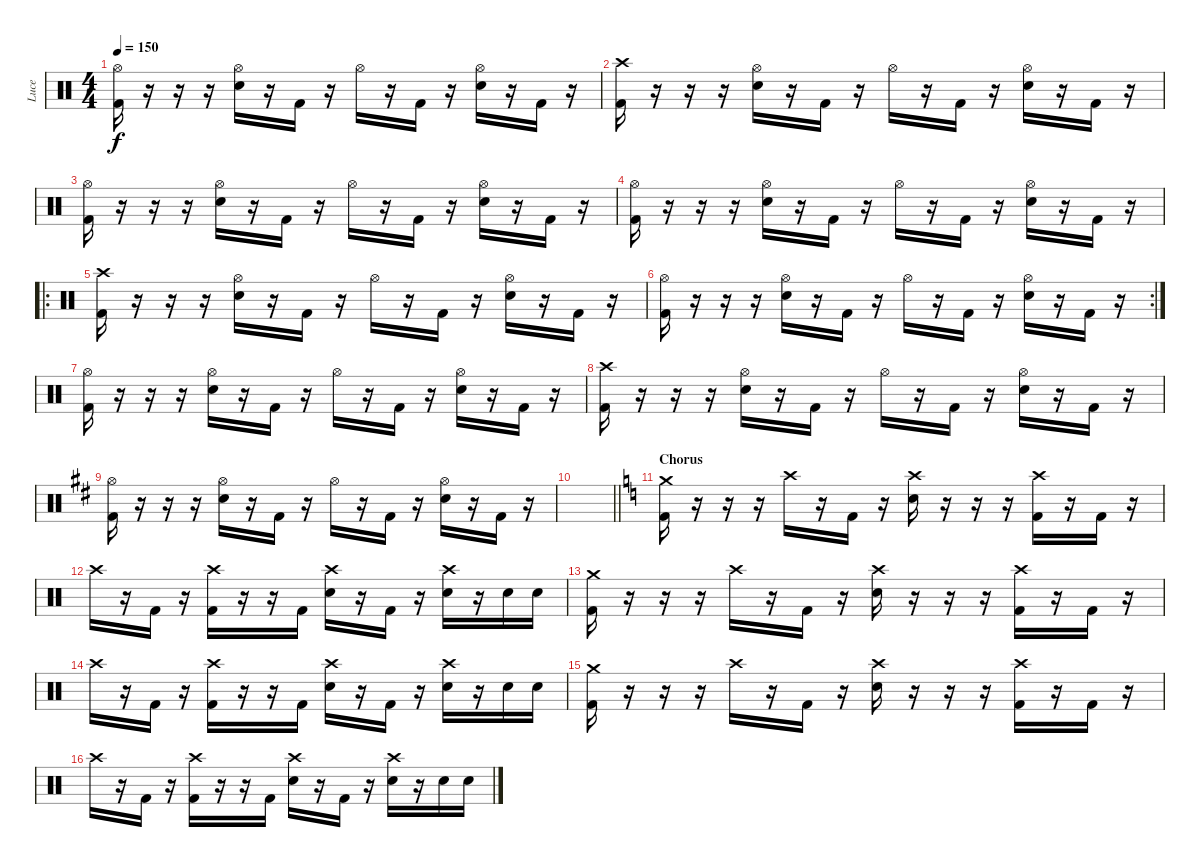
\track ("Luce" "Luce") {instrument percussion}
\staff {score}
\articulation defaults
\ts (4 4)
\tempo 150
\clef neutral
\ks c
("Hi-Hat (open)" "Kick (hit) 2").16{dy f} r.16 r.16 r.16 ("Hi-Hat (open)" "Electric Snare (hit)").16 r.16 "Kick (hit) 2".16 r.16 "Hi-Hat (open)".16 r.16 "Kick (hit) 2".16 r.16 ("Hi-Hat (open)" "Electric Snare (hit)").16 r.16 "Kick (hit) 2".16 r.16 |
("Crash high (hit)" "Kick (hit) 2").16 r.16 r.16 r.16 ("Hi-Hat (open)" "Electric Snare (hit)").16 r.16 "Kick (hit) 2".16 r.16 "Hi-Hat (open)".16 r.16 "Kick (hit) 2".16 r.16 ("Hi-Hat (open)" "Electric Snare (hit)").16 r.16 "Kick (hit) 2".16 r.16 |
("Hi-Hat (open)" "Kick (hit) 2").16 r.16 r.16 r.16 ("Hi-Hat (open)" "Electric Snare (hit)").16 r.16 "Kick (hit) 2".16 r.16 "Hi-Hat (open)".16 r.16 "Kick (hit) 2".16 r.16 ("Hi-Hat (open)" "Electric Snare (hit)").16 r.16 "Kick (hit) 2".16 r.16 |
("Hi-Hat (open)" "Kick (hit) 2").16 r.16 r.16 r.16 ("Hi-Hat (open)" "Electric Snare (hit)").16 r.16 "Kick (hit) 2".16 r.16 "Hi-Hat (open)".16 r.16 "Kick (hit) 2".16 r.16 ("Hi-Hat (open)" "Electric Snare (hit)").16 r.16 "Kick (hit) 2".16 r.16 |
\ro
("Crash high (hit)" "Kick (hit) 2").16 r.16 r.16 r.16 ("Hi-Hat (open)" "Electric Snare (hit)").16 r.16 "Kick (hit) 2".16 r.16 "Hi-Hat (open)".16 r.16 "Kick (hit) 2".16 r.16 ("Hi-Hat (open)" "Electric Snare (hit)").16 r.16 "Kick (hit) 2".16 r.16 |
\rc 2
("Hi-Hat (open)" "Kick (hit) 2").16 r.16 r.16 r.16 ("Hi-Hat (open)" "Electric Snare (hit)").16 r.16 "Kick (hit) 2".16 r.16 "Hi-Hat (open)".16 r.16 "Kick (hit) 2".16 r.16 ("Hi-Hat (open)" "Electric Snare (hit)").16 r.16 "Kick (hit) 2".16 r.16 |
("Hi-Hat (open)" "Kick (hit) 2").16 r.16 r.16 r.16 ("Hi-Hat (open)" "Electric Snare (hit)").16 r.16 "Kick (hit) 2".16 r.16 "Hi-Hat (open)".16 r.16 "Kick (hit) 2".16 r.16 ("Hi-Hat (open)" "Electric Snare (hit)").16 r.16 "Kick (hit) 2".16 r.16 |
("Crash high (hit)" "Kick (hit) 2").16 r.16 r.16 r.16 ("Hi-Hat (open)" "Electric Snare (hit)").16 r.16 "Kick (hit) 2".16 r.16 "Hi-Hat (open)".16 r.16 "Kick (hit) 2".16 r.16 ("Hi-Hat (open)" "Electric Snare (hit)").16 r.16 "Kick (hit) 2".16 r.16 |
\ks d
("Hi-Hat (open)" "Kick (hit) 2").16 r.16 r.16 r.16 ("Hi-Hat (open)" "Electric Snare (hit)").16 r.16 "Kick (hit) 2".16 r.16 "Hi-Hat (open)".16 r.16 "Kick (hit) 2".16 r.16 ("Hi-Hat (open)" "Electric Snare (hit)").16 r.16 "Kick (hit) 2".16 r.16 |
\barLineRight lightlight
|
\section ("" "Chorus")
\ks c
("Crash medium (hit)" "Kick (hit) 2").16 r.16 r.16 r.16 "Crash high (hit)".16 r.16 "Kick (hit) 2".16 r.16 ("Crash high (hit)" "Electric Snare (hit)").16 r.16 r.16 r.16 ("Crash high (hit)" "Kick (hit) 2").16 r.16 "Kick (hit) 2".16 r.16 |
"Crash high (hit)".16 r.16 "Kick (hit) 2".16 r.16 ("Crash high (hit)" "Kick (hit) 2").16 r.16 r.16 "Kick (hit) 2".16 ("Crash high (hit)" "Electric Snare (hit)").16 r.16 "Kick (hit) 2".16 r.16 ("Crash high (hit)" "Electric Snare (hit)").16 r.16 "Electric Snare (hit)".16 "Electric Snare (hit)".16 |
("Crash medium (hit)" "Kick (hit) 2").16 r.16 r.16 r.16 "Crash high (hit)".16 r.16 "Kick (hit) 2".16 r.16 ("Crash high (hit)" "Electric Snare (hit)").16 r.16 r.16 r.16 ("Crash high (hit)" "Kick (hit) 2").16 r.16 "Kick (hit) 2".16 r.16 |
"Crash high (hit)".16 r.16 "Kick (hit) 2".16 r.16 ("Crash high (hit)" "Kick (hit) 2").16 r.16 r.16 "Kick (hit) 2".16 ("Crash high (hit)" "Electric Snare (hit)").16 r.16 "Kick (hit) 2".16 r.16 ("Crash high (hit)" "Electric Snare (hit)").16 r.16 "Electric Snare (hit)".16 "Electric Snare (hit)".16 |
("Crash medium (hit)" "Kick (hit) 2").16 r.16 r.16 r.16 "Crash high (hit)".16 r.16 "Kick (hit) 2".16 r.16 ("Crash high (hit)" "Electric Snare (hit)").16 r.16 r.16 r.16 ("Crash high (hit)" "Kick (hit) 2").16 r.16 "Kick (hit) 2".16 r.16 |
"Crash high (hit)".16 r.16 "Kick (hit) 2".16 r.16 ("Crash high (hit)" "Kick (hit) 2").16 r.16 r.16 "Kick (hit) 2".16 ("Crash high (hit)" "Electric Snare (hit)").16 r.16 "Kick (hit) 2".16 r.16 ("Crash high (hit)" "Electric Snare (hit)").16 r.16 "Electric Snare (hit)".16 "Electric Snare (hit)".16
